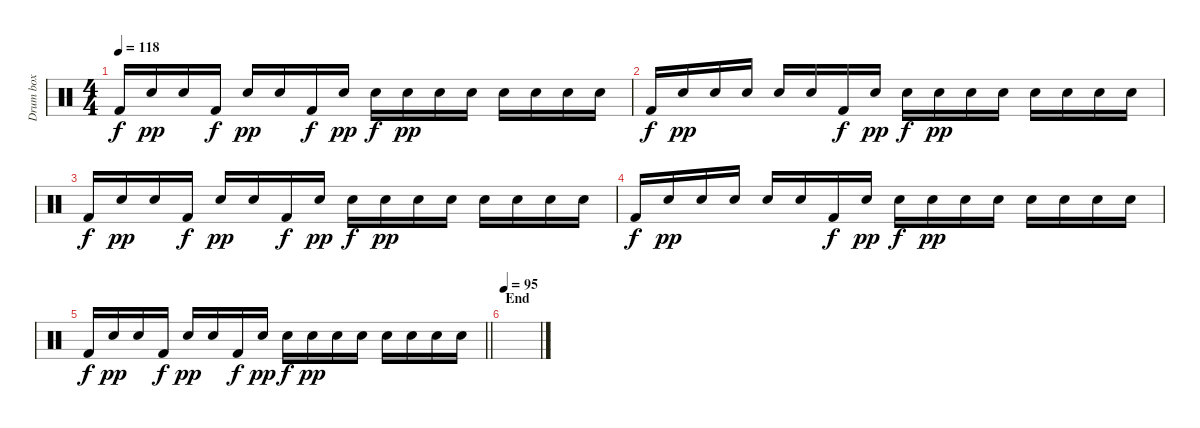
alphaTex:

\track ("Drum box" "Drum box") {instrument percussion}
\staff {score}
\articulation defaults
\ts (4 4)
\tempo 118
\clef neutral
\ks c "Kick (hit) 2".16{dy f} "Snare (hit) 2".16{dy pp} "Snare (hit) 2".16 "Kick (hit) 2".16{dy f} "Snare (hit) 2".16{dy pp} "Snare (hit) 2".16 "Kick (hit) 2".16{dy f} "Snare (hit) 2".16{dy pp} "Snare (hit) 2".16{dy f} "Snare (hit) 2".16{dy pp} "Snare (hit) 2".16 "Snare (hit) 2".16 "Snare (hit) 2".16 "Snare (hit) 2".16 "Snare (hit) 2".16 "Snare (hit) 2".16
|
"Kick (hit) 2".16{dy f} "Snare (hit) 2".16{dy pp} "Snare (hit) 2".16 "Snare (hit) 2".16 "Snare (hit) 2".16 "Snare (hit) 2".16 "Kick (hit) 2".16{dy f} "Snare (hit) 2".16{dy pp} "Snare (hit) 2".16{dy f} "Snare (hit) 2".16{dy pp} "Snare (hit) 2".16 "Snare (hit) 2".16 "Snare (hit) 2".16 "Snare (hit) 2".16 "Snare (hit) 2".16 "Snare (hit) 2".16 |
"Kick (hit) 2".16{dy f} "Snare (hit) 2".16{dy pp} "Snare (hit) 2".16 "Kick (hit) 2".16{dy f} "Snare (hit) 2".16{dy pp} "Snare (hit) 2".16 "Kick (hit) 2".16{dy f} "Snare (hit) 2".16{dy pp} "Snare (hit) 2".16{dy f} "Snare (hit) 2".16{dy pp} "Snare (hit) 2".16 "Snare (hit) 2".16 "Snare (hit) 2".16 "Snare (hit) 2".16 "Snare (hit) 2".16 "Snare (hit) 2".16 |
"Kick (hit) 2".16{dy f} "Snare (hit) 2".16{dy pp} "Snare (hit) 2".16 "Snare (hit) 2".16 "Snare (hit) 2".16 "Snare (hit) 2".16 "Kick (hit) 2".16{dy f} "Snare (hit) 2".16{dy pp} "Snare (hit) 2".16{dy f} "Snare (hit) 2".16{dy pp} "Snare (hit) 2".16 "Snare (hit) 2".16 "Snare (hit) 2".16 "Snare (hit) 2".16 "Snare (hit) 2".16 "Snare (hit) 2".16 |
\barLineRight lightlight "Kick (hit) 2".16{dy f} "Snare (hit) 2".16{dy pp} "Snare (hit) 2".16 "Kick (hit) 2".16{dy f} "Snare (hit) 2".16{dy pp} "Snare (hit) 2".16 "Kick (hit) 2".16{dy f} "Snare (hit) 2".16{dy pp} "Snare (hit) 2".16{dy f} "Snare (hit) 2".16{dy pp} "Snare (hit) 2".16 "Snare (hit) 2".16 "Snare (hit) 2".16 "Snare (hit) 2".16 "Snare (hit) 2".16 "Snare (hit) 2".16
|
\section ("" "End")
\tempo 95
